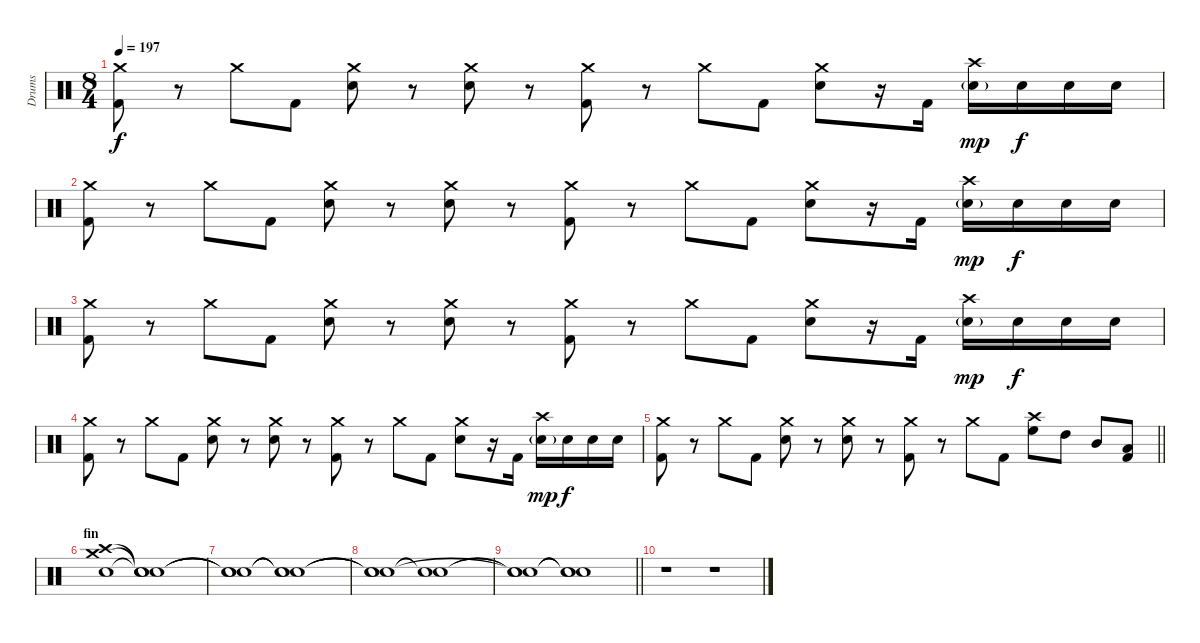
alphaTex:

\track ("Drums" "Drums") {instrument percussion}
\staff {score}
\articulation defaults
\ts (8 4)
\tempo 197
\clef neutral
\ks c
("Crash medium (hit)" "Kick (hit) 2").8{dy f} r.8 "Crash medium (hit)".8 "Kick (hit) 2".8 ("Crash medium (hit)" "Electric Snare (hit)").8 r.8 ("Crash medium (hit)" "Electric Snare (hit)").8 r.8 ("Crash medium (hit)" "Kick (hit) 2").8 r.8 "Crash medium (hit)".8 "Kick (hit) 2".8 ("Crash medium (hit)" "Electric Snare (hit)").8 r.16 "Kick (hit) 2".16 ("Crash high (hit)" "Electric Snare (hit)"{g}).16{dy mp} "Electric Snare (hit)".16{dy f} "Electric Snare (hit)".16 "Electric Snare (hit)".16 |
("Crash medium (hit)" "Kick (hit) 2").8 r.8 "Crash medium (hit)".8 "Kick (hit) 2".8 ("Crash medium (hit)" "Electric Snare (hit)").8 r.8 ("Crash medium (hit)" "Electric Snare (hit)").8 r.8 ("Crash medium (hit)" "Kick (hit) 2").8 r.8 "Crash medium (hit)".8 "Kick (hit) 2".8 ("Crash medium (hit)" "Electric Snare (hit)").8 r.16 "Kick (hit) 2".16 ("Crash high (hit)" "Electric Snare (hit)"{g}).16{dy mp} "Electric Snare (hit)".16{dy f} "Electric Snare (hit)".16 "Electric Snare (hit)".16 |
("Crash medium (hit)" "Kick (hit) 2").8 r.8 "Crash medium (hit)".8 "Kick (hit) 2".8 ("Crash medium (hit)" "Electric Snare (hit)").8 r.8 ("Crash medium (hit)" "Electric Snare (hit)").8 r.8 ("Crash medium (hit)" "Kick (hit) 2").8 r.8 "Crash medium (hit)".8 "Kick (hit) 2".8 ("Crash medium (hit)" "Electric Snare (hit)").8 r.16 "Kick (hit) 2".16 ("Crash high (hit)" "Electric Snare (hit)"{g}).16{dy mp} "Electric Snare (hit)".16{dy f} "Electric Snare (hit)".16 "Electric Snare (hit)".16 |
("Crash medium (hit)" "Kick (hit) 2").8 r.8 "Crash medium (hit)".8 "Kick (hit) 2".8 ("Crash medium (hit)" "Electric Snare (hit)").8 r.8 ("Crash medium (hit)" "Electric Snare (hit)").8 r.8 ("Crash medium (hit)" "Kick (hit) 2").8 r.8 "Crash medium (hit)".8 "Kick (hit) 2".8 ("Crash medium (hit)" "Electric Snare (hit)").8 r.16 "Kick (hit) 2".16 ("Crash high (hit)" "Electric Snare (hit)"{g}).16{dy mp} "Electric Snare (hit)".16{dy f} "Electric Snare (hit)".16 "Electric Snare (hit)".16 |
\barLineRight lightlight
("Crash medium (hit)" "Kick (hit) 2").8 r.8 "Crash medium (hit)".8 "Kick (hit) 2".8 ("Crash medium (hit)" "Electric Snare (hit)").8 r.8 ("Crash medium (hit)" "Electric Snare (hit)").8 r.8 ("Crash medium (hit)" "Kick (hit) 2").8 r.8 "Crash medium (hit)".8 "Kick (hit) 2".8 ("Crash high (hit)" "High Floor Tom (hit)").8 "High Tom (hit)".8 "Mid Tom (hit)".8 ("Low Tom (hit)" "Kick (hit) 2").8 |
\section ("" "fin")
("Crash medium (hit)" "Crash high (hit)" "Electric Snare (hit)").1 ("Snare (hit)"{t} "Snare (hit)"{t} "Snare (hit)"{t}).1 |
("Snare (hit)"{t} "Snare (hit)"{t} "Snare (hit)"{t}).1 ("Snare (hit)"{t} "Snare (hit)"{t} "Snare (hit)"{t}).1 |
("Snare (hit)"{t} "Snare (hit)"{t} "Snare (hit)"{t}).1 ("Snare (hit)"{t} "Snare (hit)"{t}).1 |
\barLineRight lightlight
("Snare (hit)"{t} "Snare (hit)"{t} "Snare (hit)"{t}).1 ("Snare (hit)"{t} "Snare (hit)"{t} "Snare (hit)"{t}).1 |
r.1 r.1
